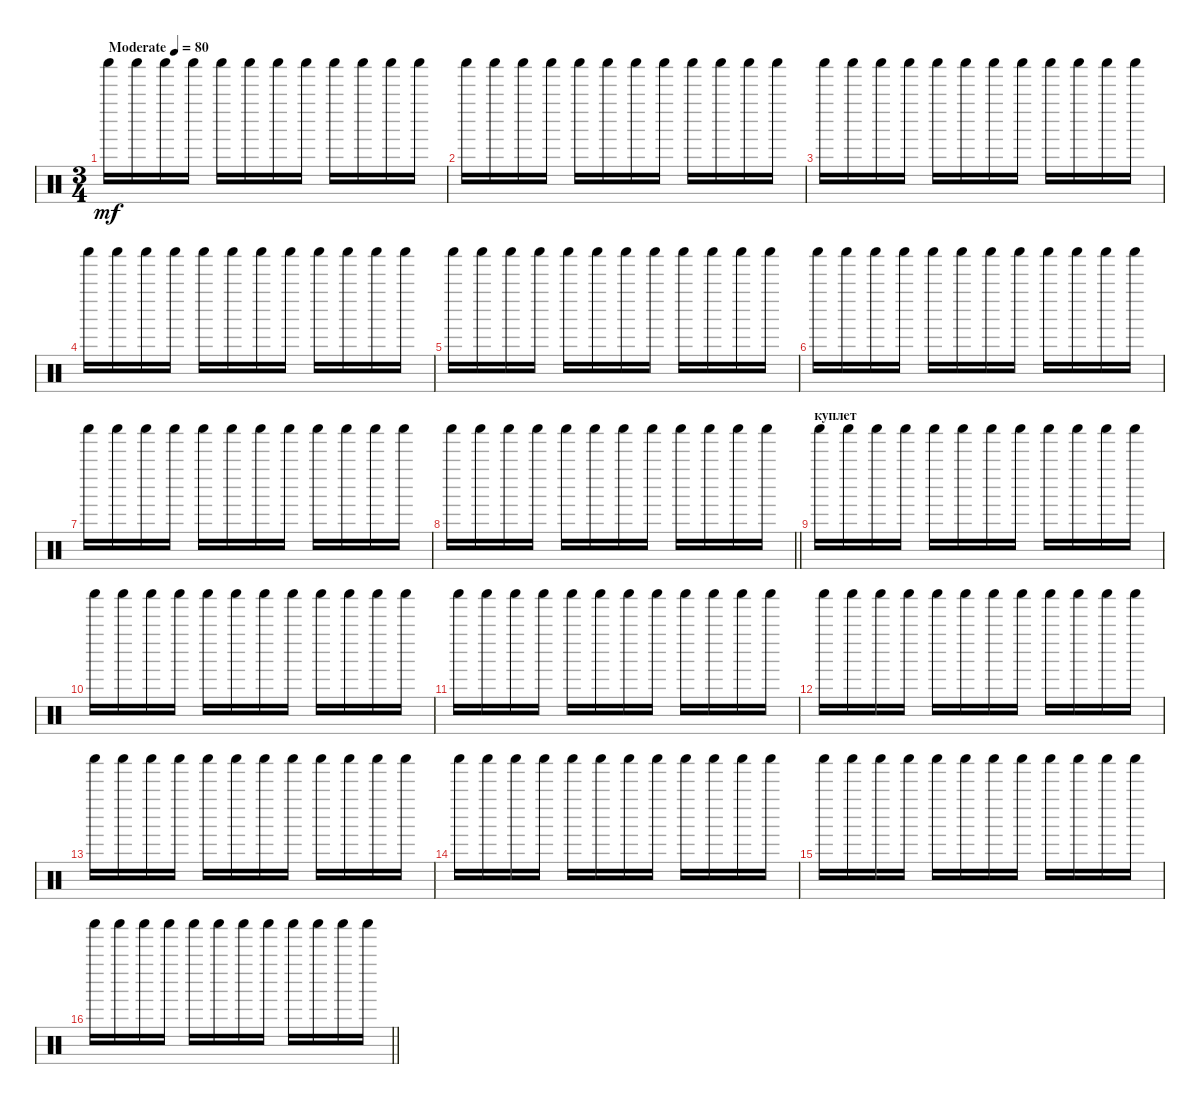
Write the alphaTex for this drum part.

\track "" {instrument percussion}
\staff {score}
\articulation defaults
\ts (3 4)
\tempo (80 "Moderate")
\clef neutral
\ks c "Shaker (hit)".16{dy mf} "Shaker (hit)".16 "Shaker (hit)".16 "Shaker (hit)".16 "Shaker (hit)".16 "Shaker (hit)".16 "Shaker (hit)".16 "Shaker (hit)".16 "Shaker (hit)".16 "Shaker (hit)".16 "Shaker (hit)".16 "Shaker (hit)".16
|
"Shaker (hit)".16 "Shaker (hit)".16 "Shaker (hit)".16 "Shaker (hit)".16 "Shaker (hit)".16 "Shaker (hit)".16 "Shaker (hit)".16 "Shaker (hit)".16 "Shaker (hit)".16 "Shaker (hit)".16 "Shaker (hit)".16 "Shaker (hit)".16 |
"Shaker (hit)".16 "Shaker (hit)".16 "Shaker (hit)".16 "Shaker (hit)".16 "Shaker (hit)".16 "Shaker (hit)".16 "Shaker (hit)".16 "Shaker (hit)".16 "Shaker (hit)".16 "Shaker (hit)".16 "Shaker (hit)".16 "Shaker (hit)".16 |
"Shaker (hit)".16 "Shaker (hit)".16 "Shaker (hit)".16 "Shaker (hit)".16 "Shaker (hit)".16 "Shaker (hit)".16 "Shaker (hit)".16 "Shaker (hit)".16 "Shaker (hit)".16 "Shaker (hit)".16 "Shaker (hit)".16 "Shaker (hit)".16 |
"Shaker (hit)".16 "Shaker (hit)".16 "Shaker (hit)".16 "Shaker (hit)".16 "Shaker (hit)".16 "Shaker (hit)".16 "Shaker (hit)".16 "Shaker (hit)".16 "Shaker (hit)".16 "Shaker (hit)".16 "Shaker (hit)".16 "Shaker (hit)".16 |
"Shaker (hit)".16 "Shaker (hit)".16 "Shaker (hit)".16 "Shaker (hit)".16 "Shaker (hit)".16 "Shaker (hit)".16 "Shaker (hit)".16 "Shaker (hit)".16 "Shaker (hit)".16 "Shaker (hit)".16 "Shaker (hit)".16 "Shaker (hit)".16 |
"Shaker (hit)".16 "Shaker (hit)".16 "Shaker (hit)".16 "Shaker (hit)".16 "Shaker (hit)".16 "Shaker (hit)".16 "Shaker (hit)".16 "Shaker (hit)".16 "Shaker (hit)".16 "Shaker (hit)".16 "Shaker (hit)".16 "Shaker (hit)".16 |
\barLineRight lightlight "Shaker (hit)".16 "Shaker (hit)".16 "Shaker (hit)".16 "Shaker (hit)".16 "Shaker (hit)".16 "Shaker (hit)".16 "Shaker (hit)".16 "Shaker (hit)".16 "Shaker (hit)".16 "Shaker (hit)".16 "Shaker (hit)".16 "Shaker (hit)".16
|
\section ("" "куплет")
"Shaker (hit)".16 "Shaker (hit)".16 "Shaker (hit)".16 "Shaker (hit)".16 "Shaker (hit)".16 "Shaker (hit)".16 "Shaker (hit)".16 "Shaker (hit)".16 "Shaker (hit)".16 "Shaker (hit)".16 "Shaker (hit)".16 "Shaker (hit)".16 |
"Shaker (hit)".16 "Shaker (hit)".16 "Shaker (hit)".16 "Shaker (hit)".16 "Shaker (hit)".16 "Shaker (hit)".16 "Shaker (hit)".16 "Shaker (hit)".16 "Shaker (hit)".16 "Shaker (hit)".16 "Shaker (hit)".16 "Shaker (hit)".16 |
"Shaker (hit)".16 "Shaker (hit)".16 "Shaker (hit)".16 "Shaker (hit)".16 "Shaker (hit)".16 "Shaker (hit)".16 "Shaker (hit)".16 "Shaker (hit)".16 "Shaker (hit)".16 "Shaker (hit)".16 "Shaker (hit)".16 "Shaker (hit)".16 |
"Shaker (hit)".16 "Shaker (hit)".16 "Shaker (hit)".16 "Shaker (hit)".16 "Shaker (hit)".16 "Shaker (hit)".16 "Shaker (hit)".16 "Shaker (hit)".16 "Shaker (hit)".16 "Shaker (hit)".16 "Shaker (hit)".16 "Shaker (hit)".16 |
"Shaker (hit)".16 "Shaker (hit)".16 "Shaker (hit)".16 "Shaker (hit)".16 "Shaker (hit)".16 "Shaker (hit)".16 "Shaker (hit)".16 "Shaker (hit)".16 "Shaker (hit)".16 "Shaker (hit)".16 "Shaker (hit)".16 "Shaker (hit)".16 |
"Shaker (hit)".16 "Shaker (hit)".16 "Shaker (hit)".16 "Shaker (hit)".16 "Shaker (hit)".16 "Shaker (hit)".16 "Shaker (hit)".16 "Shaker (hit)".16 "Shaker (hit)".16 "Shaker (hit)".16 "Shaker (hit)".16 "Shaker (hit)".16 |
"Shaker (hit)".16 "Shaker (hit)".16 "Shaker (hit)".16 "Shaker (hit)".16 "Shaker (hit)".16 "Shaker (hit)".16 "Shaker (hit)".16 "Shaker (hit)".16 "Shaker (hit)".16 "Shaker (hit)".16 "Shaker (hit)".16 "Shaker (hit)".16 |
\barLineRight lightlight "Shaker (hit)".16 "Shaker (hit)".16 "Shaker (hit)".16 "Shaker (hit)".16 "Shaker (hit)".16 "Shaker (hit)".16 "Shaker (hit)".16 "Shaker (hit)".16 "Shaker (hit)".16 "Shaker (hit)".16 "Shaker (hit)".16 "Shaker (hit)".16
